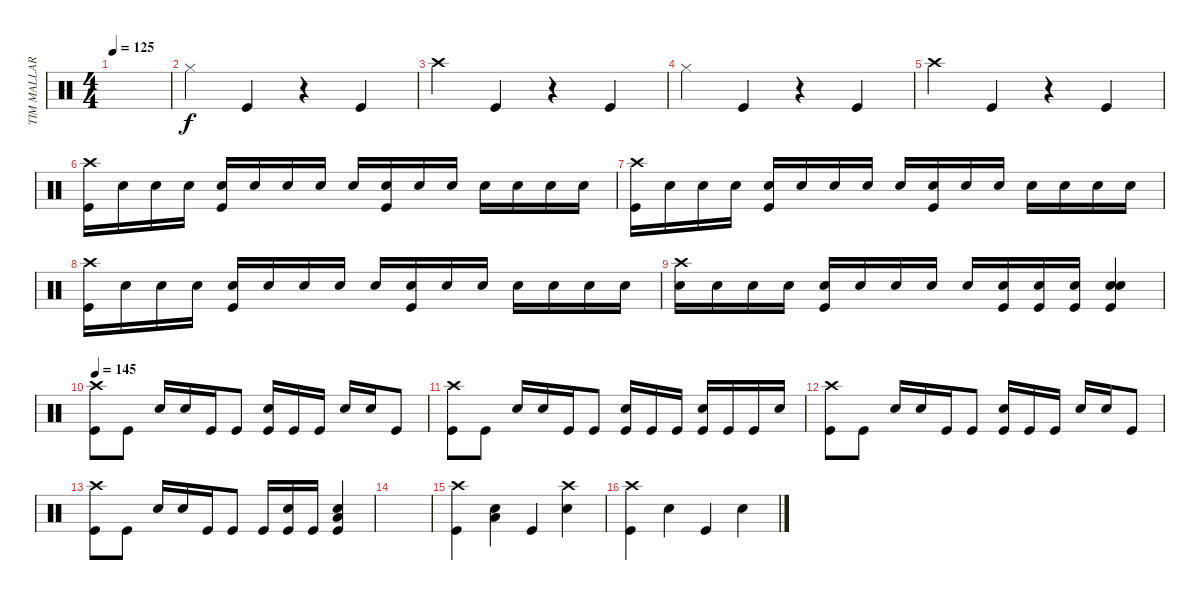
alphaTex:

\track ("TIM MALLARE - drums" "TIM MALLAR") {instrument percussion}
\staff {score}
\articulation defaults
\ts (4 4)
\tempo 125
\clef neutral
\ks c
|
"Hi-Hat (closed)".4 "Kick (hit)".4 r.4 "Kick (hit)".4 |
"Crash high (hit)".4 "Kick (hit)".4 r.4 "Kick (hit)".4 |
"Hi-Hat (closed)".4 "Kick (hit)".4 r.4 "Kick (hit)".4 |
"Crash high (hit)".4 "Kick (hit)".4 r.4 "Kick (hit)".4 |
("Crash high (hit)" "Kick (hit)").16 "Electric Snare (hit)".16 "Electric Snare (hit)".16 "Electric Snare (hit)".16 ("Electric Snare (hit)" "Kick (hit)").16 "Electric Snare (hit)".16 "Electric Snare (hit)".16 "Electric Snare (hit)".16 "Electric Snare (hit)".16 ("Electric Snare (hit)" "Kick (hit)").16 "Electric Snare (hit)".16 "Electric Snare (hit)".16 "Electric Snare (hit)".16 "Electric Snare (hit)".16 "Electric Snare (hit)".16 "Electric Snare (hit)".16 |
("Crash high (hit)" "Kick (hit)").16 "Electric Snare (hit)".16 "Electric Snare (hit)".16 "Electric Snare (hit)".16 ("Electric Snare (hit)" "Kick (hit)").16 "Electric Snare (hit)".16 "Electric Snare (hit)".16 "Electric Snare (hit)".16 "Electric Snare (hit)".16 ("Electric Snare (hit)" "Kick (hit)").16 "Electric Snare (hit)".16 "Electric Snare (hit)".16 "Electric Snare (hit)".16 "Electric Snare (hit)".16 "Electric Snare (hit)".16 "Electric Snare (hit)".16 |
("Crash high (hit)" "Kick (hit)").16 "Electric Snare (hit)".16 "Electric Snare (hit)".16 "Electric Snare (hit)".16 ("Electric Snare (hit)" "Kick (hit)").16 "Electric Snare (hit)".16 "Electric Snare (hit)".16 "Electric Snare (hit)".16 "Electric Snare (hit)".16 ("Electric Snare (hit)" "Kick (hit)").16 "Electric Snare (hit)".16 "Electric Snare (hit)".16 "Electric Snare (hit)".16 "Electric Snare (hit)".16 "Electric Snare (hit)".16 "Electric Snare (hit)".16 |
("Crash high (hit)" "Electric Snare (hit)").16 "Electric Snare (hit)".16 "Electric Snare (hit)".16 "Electric Snare (hit)".16 ("Electric Snare (hit)" "Kick (hit)").16 "Electric Snare (hit)".16 "Electric Snare (hit)".16 "Electric Snare (hit)".16 "Electric Snare (hit)".16 ("Electric Snare (hit)" "Kick (hit)").16 ("Electric Snare (hit)" "Kick (hit)").16 ("Electric Snare (hit)" "Kick (hit)").16 ("Electric Snare (hit)" "Electric Snare (hit)" "Kick (hit)").4 |
\tempo 145
("Crash high (hit)" "Kick (hit)").8 "Kick (hit)".8 "Electric Snare (hit)".16 "Electric Snare (hit)".16 "Kick (hit)".16 "Kick (hit)".8 ("Electric Snare (hit)" "Kick (hit)").16 "Kick (hit)".16 "Kick (hit)".16 "Electric Snare (hit)".16 "Electric Snare (hit)".16 "Kick (hit)".8 |
("Crash high (hit)" "Kick (hit)").8 "Kick (hit)".8 "Electric Snare (hit)".16 "Electric Snare (hit)".16 "Kick (hit)".16 "Kick (hit)".8 ("Electric Snare (hit)" "Kick (hit)").16 "Kick (hit)".16 "Kick (hit)".16 ("Electric Snare (hit)" "Kick (hit)").16 "Kick (hit)".16 "Kick (hit)".16 "Electric Snare (hit)".16 |
("Crash high (hit)" "Kick (hit)").8 "Kick (hit)".8 "Electric Snare (hit)".16 "Electric Snare (hit)".16 "Kick (hit)".16 "Kick (hit)".8 ("Electric Snare (hit)" "Kick (hit)").16 "Kick (hit)".16 "Kick (hit)".16 "Electric Snare (hit)".16 "Electric Snare (hit)".16 "Kick (hit)".8 |
("Crash high (hit)" "Kick (hit)").8 "Kick (hit)".8 "Electric Snare (hit)".16 "Electric Snare (hit)".16 "Kick (hit)".16 "Kick (hit)".8 "Kick (hit)".16 ("Electric Snare (hit)" "Kick (hit)").16 "Kick (hit)".16 ("Electric Snare (hit)" "Low Tom (hit)" "Kick (hit)").4 |
|
("Crash high (hit)" "Kick (hit)").4 ("Electric Snare (hit)" "Low Tom (hit)").4 "Kick (hit)".4 ("Crash high (hit)" "Electric Snare (hit)").4 |
("Crash high (hit)" "Kick (hit)").4 "Electric Snare (hit)".4 "Kick (hit)".4 "Electric Snare (hit)".4
